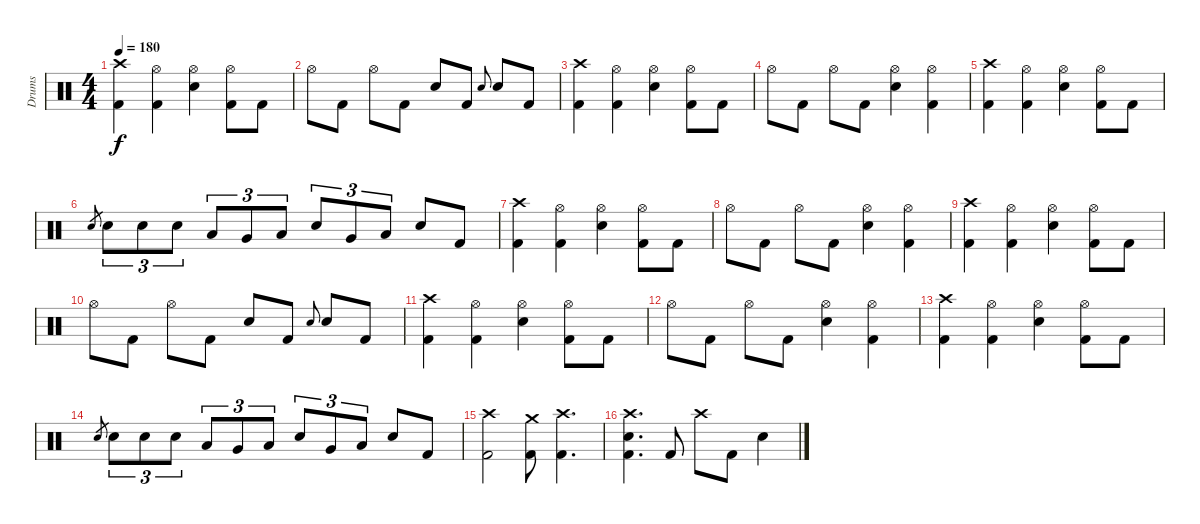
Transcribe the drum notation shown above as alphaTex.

\track ("Drums" "Drums") {instrument percussion}
\staff {score}
\articulation defaults
\ts (4 4)
\tempo 180
\clef neutral
\ks c
("Crash high (hit)" "Kick (hit) 2").4{dy f} ("Hi-Hat (open)" "Kick (hit) 2").4 ("Hi-Hat (open)" "Electric Snare (hit)").4 ("Hi-Hat (open)" "Kick (hit) 2").8 "Kick (hit) 2".8 |
"Hi-Hat (open)".8 "Kick (hit) 2".8 "Hi-Hat (open)".8 "Kick (hit) 2".8 "Electric Snare (hit)".8 "Kick (hit) 2".8 "Electric Snare (hit)".8{gr onbeat} "Electric Snare (hit)".8 "Kick (hit) 2".8 |
("Crash high (hit)" "Kick (hit) 2").4 ("Hi-Hat (open)" "Kick (hit) 2").4 ("Hi-Hat (open)" "Electric Snare (hit)").4 ("Hi-Hat (open)" "Kick (hit) 2").8 "Kick (hit) 2".8 |
"Hi-Hat (open)".8 "Kick (hit) 2".8 "Hi-Hat (open)".8 "Kick (hit) 2".8 ("Hi-Hat (open)" "Electric Snare (hit)").4 ("Hi-Hat (open)" "Kick (hit) 2").4 |
("Crash high (hit)" "Kick (hit) 2").4 ("Hi-Hat (open)" "Kick (hit) 2").4 ("Hi-Hat (open)" "Electric Snare (hit)").4 ("Hi-Hat (open)" "Kick (hit) 2").8 "Kick (hit) 2".8 |
"Electric Snare (hit)".8{gr} "Electric Snare (hit)".8{tu (3 2)} "Electric Snare (hit)".8{tu (3 2)} "Electric Snare (hit)".8{tu (3 2)} "Low Tom (hit)".8{tu (3 2)} "Very Low Tom (hit)".8{tu (3 2)} "Low Floor Tom (hit)".8{tu (3 2)} "Electric Snare (hit)".8{tu (3 2)} "Very Low Tom (hit)".8{tu (3 2)} "Low Floor Tom (hit)".8{tu (3 2)} "Electric Snare (hit)".8 "Kick (hit) 2".8 |
("Crash high (hit)" "Kick (hit) 2").4 ("Hi-Hat (open)" "Kick (hit) 2").4 ("Hi-Hat (open)" "Electric Snare (hit)").4 ("Hi-Hat (open)" "Kick (hit) 2").8 "Kick (hit) 2".8 |
"Hi-Hat (open)".8 "Kick (hit) 2".8 "Hi-Hat (open)".8 "Kick (hit) 2".8 ("Hi-Hat (open)" "Electric Snare (hit)").4 ("Hi-Hat (open)" "Kick (hit) 2").4 |
("Crash high (hit)" "Kick (hit) 2").4 ("Hi-Hat (open)" "Kick (hit) 2").4 ("Hi-Hat (open)" "Electric Snare (hit)").4 ("Hi-Hat (open)" "Kick (hit) 2").8 "Kick (hit) 2".8 |
"Hi-Hat (open)".8 "Kick (hit) 2".8 "Hi-Hat (open)".8 "Kick (hit) 2".8 "Electric Snare (hit)".8 "Kick (hit) 2".8 "Electric Snare (hit)".8{gr onbeat} "Electric Snare (hit)".8 "Kick (hit) 2".8 |
("Crash high (hit)" "Kick (hit) 2").4 ("Hi-Hat (open)" "Kick (hit) 2").4 ("Hi-Hat (open)" "Electric Snare (hit)").4 ("Hi-Hat (open)" "Kick (hit) 2").8 "Kick (hit) 2".8 |
"Hi-Hat (open)".8 "Kick (hit) 2".8 "Hi-Hat (open)".8 "Kick (hit) 2".8 ("Hi-Hat (open)" "Electric Snare (hit)").4 ("Hi-Hat (open)" "Kick (hit) 2").4 |
("Crash high (hit)" "Kick (hit) 2").4 ("Hi-Hat (open)" "Kick (hit) 2").4 ("Hi-Hat (open)" "Electric Snare (hit)").4 ("Hi-Hat (open)" "Kick (hit) 2").8 "Kick (hit) 2".8 |
"Electric Snare (hit)".8{gr} "Electric Snare (hit)".8{tu (3 2)} "Electric Snare (hit)".8{tu (3 2)} "Electric Snare (hit)".8{tu (3 2)} "Low Tom (hit)".8{tu (3 2)} "Very Low Tom (hit)".8{tu (3 2)} "Low Floor Tom (hit)".8{tu (3 2)} "Electric Snare (hit)".8{tu (3 2)} "Very Low Tom (hit)".8{tu (3 2)} "Low Floor Tom (hit)".8{tu (3 2)} "Electric Snare (hit)".8 "Kick (hit) 2".8 |
("Crash high (hit)" "Kick (hit) 2").2 ("Crash medium (hit)" "Kick (hit) 2").8 ("Crash high (hit)" "Kick (hit) 2").4{d} |
("Crash high (hit)" "Electric Snare (hit)" "Kick (hit) 2").4{d} "Kick (hit) 2".8 "Crash high (hit)".8 "Kick (hit) 2".8 "Electric Snare (hit)".4
